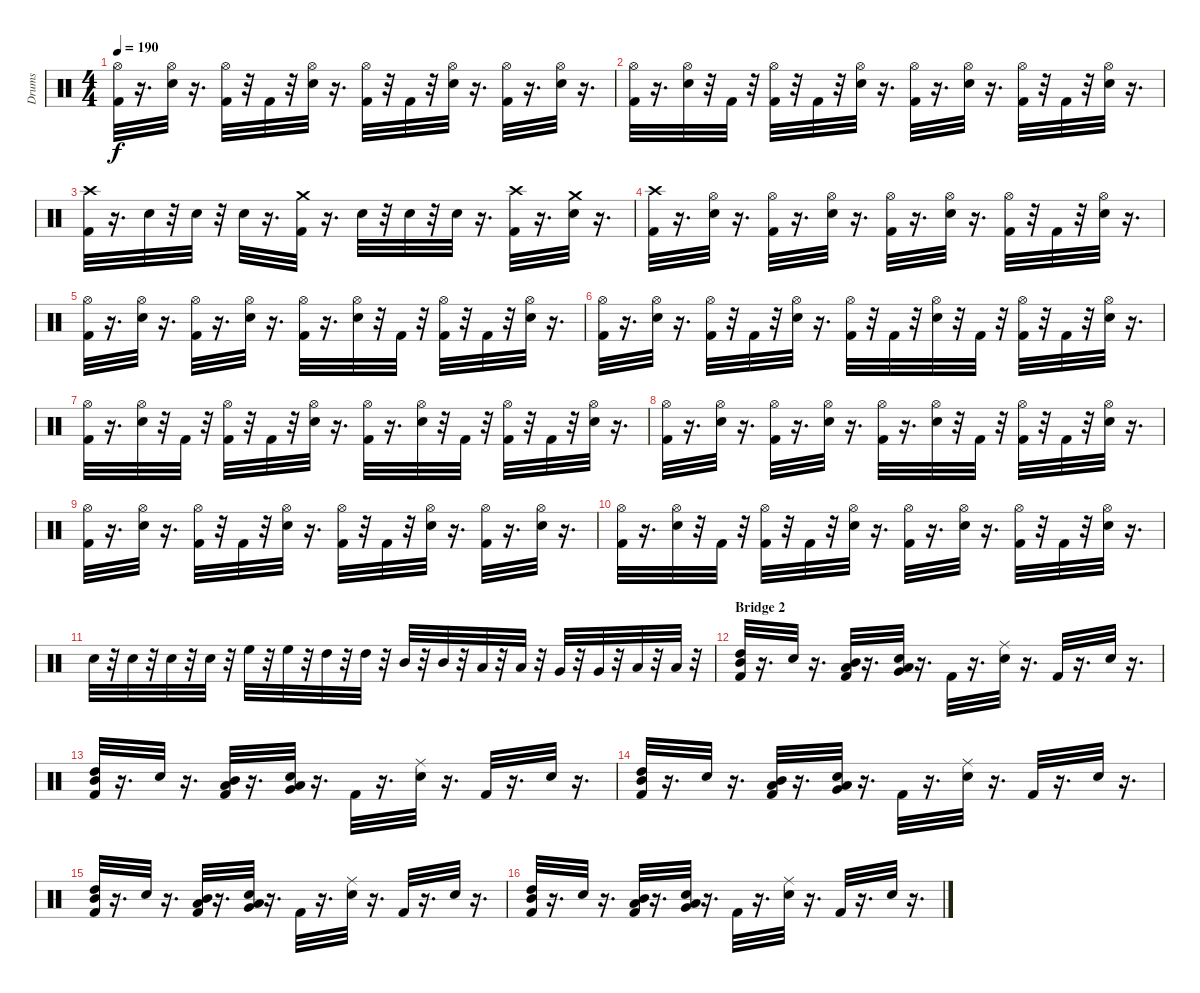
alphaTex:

\track ("Drums" "Drums") {instrument percussion}
\staff {score}
\articulation defaults
\ts (4 4)
\tempo 190
\clef neutral
\ks c
("Kick (hit) 2" "Hi-Hat (open)").32{dy f} r.16{d} ("Hi-Hat (open)" "Snare (hit) 2").32 r.16{d} ("Hi-Hat (open)" "Kick (hit) 2").32 r.32 "Kick (hit) 2".32 r.32 ("Snare (hit) 2" "Hi-Hat (open)").32 r.16{d} ("Hi-Hat (open)" "Kick (hit) 2").32 r.32 "Kick (hit) 2".32 r.32 ("Hi-Hat (open)" "Snare (hit) 2").32 r.16{d} ("Kick (hit) 2" "Hi-Hat (open)").32 r.16{d} ("Snare (hit) 2" "Hi-Hat (open)").32 r.16{d} |
("Kick (hit) 2" "Hi-Hat (open)").32 r.16{d} ("Hi-Hat (open)" "Snare (hit) 2").32 r.32 "Kick (hit) 2".32 r.32 ("Hi-Hat (open)" "Kick (hit) 2").32 r.32 "Kick (hit) 2".32 r.32 ("Hi-Hat (open)" "Snare (hit) 2").32 r.16{d} ("Kick (hit) 2" "Hi-Hat (open)").32 r.16{d} ("Hi-Hat (open)" "Snare (hit) 2").32 r.16{d} ("Hi-Hat (open)" "Kick (hit) 2").32 r.32 "Kick (hit) 2".32 r.32 ("Hi-Hat (open)" "Snare (hit) 2").32 r.16{d} |
("Crash high (hit)" "Kick (hit) 2").32 r.16{d} "Snare (hit) 2".32 r.32 "Snare (hit) 2".32 r.32 "Snare (hit) 2".32 r.16{d} ("Kick (hit) 2" "Crash medium (hit)").32 r.16{d} "Snare (hit) 2".32 r.32 "Snare (hit) 2".32 r.32 "Snare (hit) 2".32 r.16{d} ("Kick (hit) 2" "Crash high (hit)").32 r.16{d} ("Snare (hit) 2" "Crash medium (hit)").32 r.16{d} |
("Crash high (hit)" "Kick (hit) 2").32 r.16{d} ("Snare (hit) 2" "Hi-Hat (open)").32 r.16{d} ("Hi-Hat (open)" "Kick (hit) 2").32 r.16{d} ("Hi-Hat (open)" "Snare (hit) 2").32 r.16{d} ("Kick (hit) 2" "Hi-Hat (open)").32 r.16{d} ("Snare (hit) 2" "Hi-Hat (open)").32 r.16{d} ("Kick (hit) 2" "Hi-Hat (open)").32 r.32 "Kick (hit) 2".32 r.32 ("Hi-Hat (open)" "Snare (hit) 2").32 r.16{d} |
("Kick (hit) 2" "Hi-Hat (open)").32 r.16{d} ("Snare (hit) 2" "Hi-Hat (open)").32 r.16{d} ("Kick (hit) 2" "Hi-Hat (open)").32 r.16{d} ("Snare (hit) 2" "Hi-Hat (open)").32 r.16{d} ("Kick (hit) 2" "Hi-Hat (open)").32 r.16{d} ("Snare (hit) 2" "Hi-Hat (open)").32 r.32 "Kick (hit) 2".32 r.32 ("Hi-Hat (open)" "Kick (hit) 2").32 r.32 "Kick (hit) 2".32 r.32 ("Snare (hit) 2" "Hi-Hat (open)").32 r.16{d} |
("Hi-Hat (open)" "Kick (hit) 2").32 r.16{d} ("Hi-Hat (open)" "Snare (hit) 2").32 r.16{d} ("Kick (hit) 2" "Hi-Hat (open)").32 r.32 "Kick (hit) 2".32 r.32 ("Hi-Hat (open)" "Snare (hit) 2").32 r.16{d} ("Kick (hit) 2" "Hi-Hat (open)").32 r.32 "Kick (hit) 2".32 r.32 ("Hi-Hat (open)" "Snare (hit) 2").32 r.32 "Kick (hit) 2".32 r.32 ("Hi-Hat (open)" "Kick (hit) 2").32 r.32 "Kick (hit) 2".32 r.32 ("Snare (hit) 2" "Hi-Hat (open)").32 r.16{d} |
("Kick (hit) 2" "Hi-Hat (open)").32 r.16{d} ("Snare (hit) 2" "Hi-Hat (open)").32 r.32 "Kick (hit) 2".32 r.32 ("Hi-Hat (open)" "Kick (hit) 2").32 r.32 "Kick (hit) 2".32 r.32 ("Hi-Hat (open)" "Snare (hit) 2").32 r.16{d} ("Hi-Hat (open)" "Kick (hit) 2").32 r.16{d} ("Snare (hit) 2" "Hi-Hat (open)").32 r.32 "Kick (hit) 2".32 r.32 ("Kick (hit) 2" "Hi-Hat (open)").32 r.32 "Kick (hit) 2".32 r.32 ("Hi-Hat (open)" "Snare (hit) 2").32 r.16{d} |
("Kick (hit) 2" "Hi-Hat (open)").32 r.16{d} ("Snare (hit) 2" "Hi-Hat (open)").32 r.16{d} ("Hi-Hat (open)" "Kick (hit) 2").32 r.16{d} ("Snare (hit) 2" "Hi-Hat (open)").32 r.16{d} ("Hi-Hat (open)" "Kick (hit) 2").32 r.16{d} ("Hi-Hat (open)" "Snare (hit) 2").32 r.32 "Kick (hit) 2".32 r.32 ("Kick (hit) 2" "Hi-Hat (open)").32 r.32 "Kick (hit) 2".32 r.32 ("Snare (hit) 2" "Hi-Hat (open)").32 r.16{d} |
("Kick (hit) 2" "Hi-Hat (open)").32 r.16{d} ("Hi-Hat (open)" "Snare (hit) 2").32 r.16{d} ("Kick (hit) 2" "Hi-Hat (open)").32 r.32 "Kick (hit) 2".32 r.32 ("Hi-Hat (open)" "Snare (hit) 2").32 r.16{d} ("Hi-Hat (open)" "Kick (hit) 2").32 r.32 "Kick (hit) 2".32 r.32 ("Hi-Hat (open)" "Snare (hit) 2").32 r.16{d} ("Hi-Hat (open)" "Kick (hit) 2").32 r.16{d} ("Snare (hit) 2" "Hi-Hat (open)").32 r.16{d} |
("Kick (hit) 2" "Hi-Hat (open)").32 r.16{d} ("Hi-Hat (open)" "Snare (hit) 2").32 r.32 "Kick (hit) 2".32 r.32 ("Hi-Hat (open)" "Kick (hit) 2").32 r.32 "Kick (hit) 2".32 r.32 ("Hi-Hat (open)" "Snare (hit) 2").32 r.16{d} ("Hi-Hat (open)" "Kick (hit) 2").32 r.16{d} ("Hi-Hat (open)" "Snare (hit) 2").32 r.16{d} ("Hi-Hat (open)" "Kick (hit) 2").32 r.32 "Kick (hit) 2".32 r.32 ("Snare (hit) 2" "Hi-Hat (open)").32 r.16{d} |
"Snare (hit) 2".32 r.32 "Snare (hit) 2".32 r.32 "Snare (hit) 2".32 r.32 "Snare (hit) 2".32 r.32 "High Floor Tom (hit)".32 r.32 "High Floor Tom (hit)".32 r.32 "High Tom (hit)".32 r.32 "High Tom (hit)".32 r.32 "Mid Tom (hit)".32 r.32 "Mid Tom (hit)".32 r.32 "Low Tom (hit)".32 r.32 "Low Tom (hit)".32 r.32 "Very Low Tom (hit)".32 r.32 "Very Low Tom (hit)".32 r.32 "Low Floor Tom (hit)".32 r.32 "Low Floor Tom (hit)".32 r.32 |
\section ("" "Bridge 2")
("High Tom (hit)" "Mid Tom (hit)" "Kick (hit) 2").32 r.16{d} "Snare (hit) 2".32 r.16{d} ("Mid Tom (hit)" "Low Tom (hit)" "Kick (hit) 2").32 r.16{d} ("Low Tom (hit)" "Snare (hit) 2" "Very Low Tom (hit)").32 r.16{d} "Kick (hit) 2".32 r.16{d} ("Ride (middle)" "Snare (hit) 2").32 r.16{d} "Kick (hit) 2".32 r.16{d} "Snare (hit) 2".32 r.16{d} |
("High Tom (hit)" "Mid Tom (hit)" "Kick (hit) 2").32 r.16{d} "Snare (hit) 2".32 r.16{d} ("Kick (hit) 2" "Low Tom (hit)" "Mid Tom (hit)").32 r.16{d} ("Snare (hit) 2" "Low Tom (hit)" "Very Low Tom (hit)").32 r.16{d} "Kick (hit) 2".32 r.16{d} ("Ride (middle)" "Snare (hit) 2").32 r.16{d} "Kick (hit) 2".32 r.16{d} "Snare (hit) 2".32 r.16{d} |
("Kick (hit) 2" "High Tom (hit)" "Mid Tom (hit)").32 r.16{d} "Snare (hit) 2".32 r.16{d} ("Kick (hit) 2" "Low Tom (hit)" "Mid Tom (hit)").32 r.16{d} ("Snare (hit) 2" "Low Tom (hit)" "Very Low Tom (hit)").32 r.16{d} "Kick (hit) 2".32 r.16{d} ("Ride (middle)" "Snare (hit) 2").32 r.16{d} "Kick (hit) 2".32 r.16{d} "Snare (hit) 2".32 r.16{d} |
("Mid Tom (hit)" "High Tom (hit)" "Kick (hit) 2").32 r.16{d} "Snare (hit) 2".32 r.16{d} ("Kick (hit) 2" "Mid Tom (hit)" "Low Tom (hit)").32 r.16{d} ("Snare (hit) 2" "Low Tom (hit)" "Very Low Tom (hit)").32 r.16{d} "Kick (hit) 2".32 r.16{d} ("Ride (middle)" "Snare (hit) 2").32 r.16{d} "Kick (hit) 2".32 r.16{d} "Snare (hit) 2".32 r.16{d} |
("High Tom (hit)" "Kick (hit) 2" "Mid Tom (hit)").32 r.16{d} "Snare (hit) 2".32 r.16{d} ("Kick (hit) 2" "Mid Tom (hit)" "Low Tom (hit)").32 r.16{d} ("Snare (hit) 2" "Very Low Tom (hit)" "Low Tom (hit)").32 r.16{d} "Kick (hit) 2".32 r.16{d} ("Snare (hit) 2" "Ride (middle)").32 r.16{d} "Kick (hit) 2".32 r.16{d} "Snare (hit) 2".32 r.16{d}
